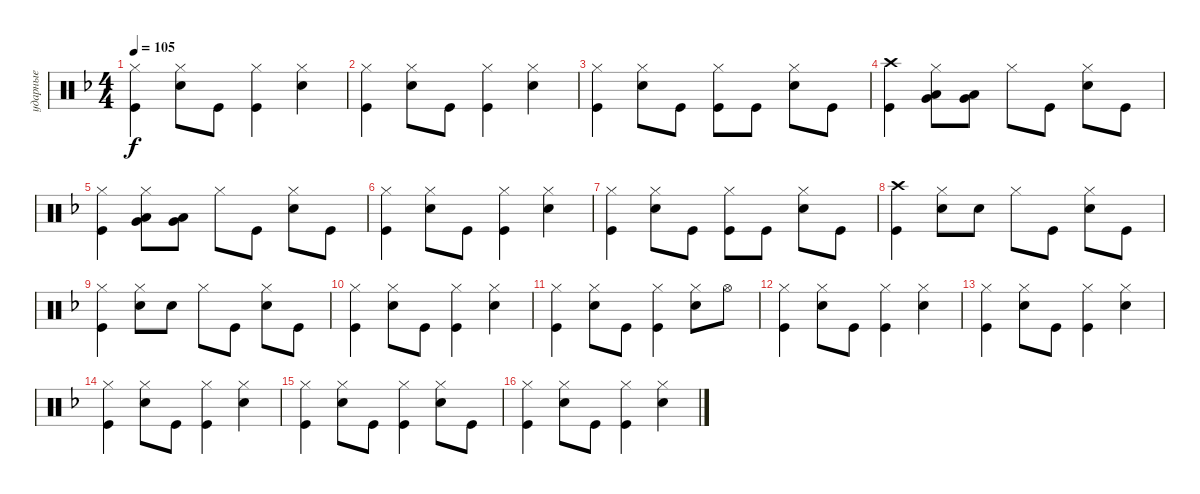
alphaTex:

\track ("ударные" "ударные") {instrument percussion}
\staff {score}
\articulation defaults
\ts (4 4)
\tempo 105
\clef neutral
\ks f
("Kick (hit)" "Hi-Hat (closed)").4{dy f} ("Snare (hit) 2" "Hi-Hat (closed)").8 "Kick (hit)".8 ("Kick (hit)" "Hi-Hat (closed)").4 ("Snare (hit) 2" "Hi-Hat (closed)").4 |
("Kick (hit)" "Hi-Hat (closed)").4 ("Snare (hit) 2" "Hi-Hat (closed)").8 "Kick (hit)".8 ("Kick (hit)" "Hi-Hat (closed)").4 ("Snare (hit) 2" "Hi-Hat (closed)").4 |
("Kick (hit)" "Hi-Hat (closed)").4 ("Snare (hit) 2" "Hi-Hat (closed)").8 "Kick (hit)".8 ("Kick (hit)" "Hi-Hat (closed)").8 "Kick (hit)".8 ("Snare (hit) 2" "Hi-Hat (closed)").8 "Kick (hit)".8 |
("Kick (hit)" "Crash high (hit)").4 ("Very Low Tom (hit)" "Hi-Hat (closed)" "Low Tom (hit)").8 ("Very Low Tom (hit)" "Low Tom (hit)").8 "Hi-Hat (closed)".8 "Kick (hit)".8 ("Snare (hit) 2" "Hi-Hat (closed)").8 "Kick (hit)".8 |
("Kick (hit)" "Hi-Hat (closed)").4 ("Low Floor Tom (hit)" "Very Low Tom (hit)" "Hi-Hat (closed)").8 ("Low Floor Tom (hit)" "Very Low Tom (hit)").8 "Hi-Hat (closed)".8 "Kick (hit)".8 ("Snare (hit) 2" "Hi-Hat (closed)").8 "Kick (hit)".8 |
("Kick (hit)" "Hi-Hat (closed)").4 ("Snare (hit) 2" "Hi-Hat (closed)").8 "Kick (hit)".8 ("Kick (hit)" "Hi-Hat (closed)").4 ("Snare (hit) 2" "Hi-Hat (closed)").4 |
("Kick (hit)" "Hi-Hat (closed)").4 ("Snare (hit) 2" "Hi-Hat (closed)").8 "Kick (hit)".8 ("Kick (hit)" "Hi-Hat (closed)").8 "Kick (hit)".8 ("Snare (hit) 2" "Hi-Hat (closed)").8 "Kick (hit)".8 |
("Kick (hit)" "Crash high (hit)").4 ("Snare (hit) 2" "Hi-Hat (closed)").8 "Snare (hit) 2".8 "Hi-Hat (closed)".8 "Kick (hit)".8 ("Snare (hit) 2" "Hi-Hat (closed)").8 "Kick (hit)".8 |
("Kick (hit)" "Hi-Hat (closed)").4 ("Snare (hit) 2" "Hi-Hat (closed)").8 "Snare (hit) 2".8 "Hi-Hat (closed)".8 "Kick (hit)".8 ("Snare (hit) 2" "Hi-Hat (closed)").8 "Kick (hit)".8 |
("Kick (hit)" "Hi-Hat (closed)").4 ("Snare (hit) 2" "Hi-Hat (closed)").8 "Kick (hit)".8 ("Kick (hit)" "Hi-Hat (closed)").4 ("Snare (hit) 2" "Hi-Hat (closed)").4 |
("Kick (hit)" "Hi-Hat (closed)").4 ("Snare (hit) 2" "Hi-Hat (closed)").8 "Kick (hit)".8 ("Kick (hit)" "Hi-Hat (closed)").4 ("Snare (hit) 2" "Hi-Hat (closed)").8 "Hi-Hat (open)".8 |
("Kick (hit)" "Hi-Hat (closed)").4 ("Snare (hit) 2" "Hi-Hat (closed)").8 "Kick (hit)".8 ("Kick (hit)" "Hi-Hat (closed)").4 ("Snare (hit) 2" "Hi-Hat (closed)").4 |
("Kick (hit)" "Hi-Hat (closed)").4 ("Snare (hit) 2" "Hi-Hat (closed)").8 "Kick (hit)".8 ("Kick (hit)" "Hi-Hat (closed)").4 ("Snare (hit) 2" "Hi-Hat (closed)").4 |
("Kick (hit)" "Hi-Hat (closed)").4 ("Snare (hit) 2" "Hi-Hat (closed)").8 "Kick (hit)".8 ("Kick (hit)" "Hi-Hat (closed)").4 ("Snare (hit) 2" "Hi-Hat (closed)").4 |
("Kick (hit)" "Hi-Hat (closed)").4 ("Snare (hit) 2" "Hi-Hat (closed)").8 "Kick (hit)".8 ("Kick (hit)" "Hi-Hat (closed)").4 ("Snare (hit) 2" "Hi-Hat (closed)").8 "Kick (hit)".8 |
("Kick (hit)" "Hi-Hat (closed)").4 ("Snare (hit) 2" "Hi-Hat (closed)").8 "Kick (hit)".8 ("Kick (hit)" "Hi-Hat (closed)").4 ("Snare (hit) 2" "Hi-Hat (closed)").4
